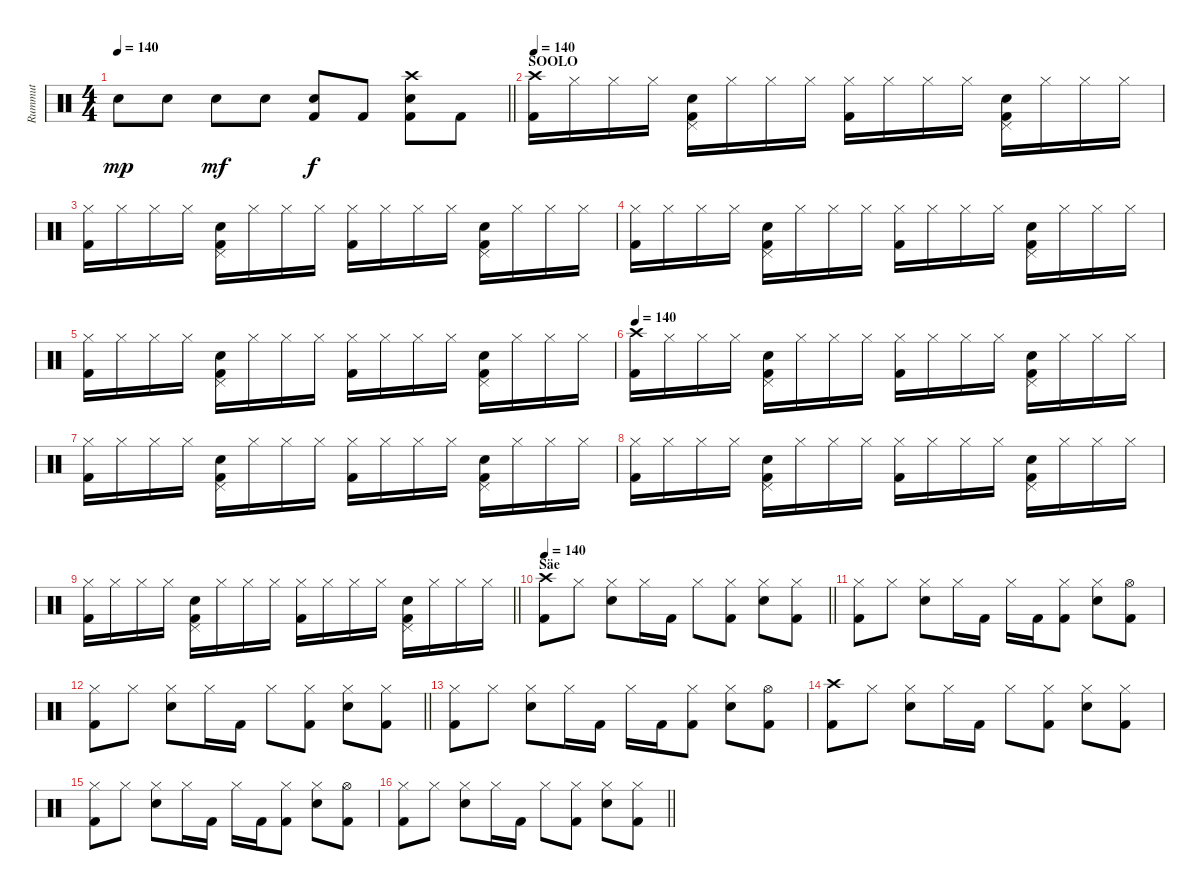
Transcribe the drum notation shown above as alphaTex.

\track ("Rummut" "Rummut") {instrument percussion}
\staff {score}
\articulation defaults
\ts (4 4)
\tempo 140
\clef neutral
\barLineRight lightlight
\ks c "Snare (hit) 2".8{dy mp} "Snare (hit) 2".8 "Snare (hit) 2".8{dy mf} "Snare (hit) 2".8
("Snare (hit) 2" "Kick (hit) 2").8{dy f} "Kick (hit) 2".8 ("Crash high (hit)" "Snare (hit) 2" "Kick (hit) 2").8 "Kick (hit) 2".8 |
\section ("" "SOOLO")
\tempo 140
("Crash high (hit)" "Kick (hit) 2").16 "Hi-Hat (closed)".16 "Hi-Hat (closed)".16 "Hi-Hat (closed)".16 ("Pedal Hi-Hat (hit)" "Snare (hit) 2" "Kick (hit) 2").16 "Hi-Hat (closed)".16 "Hi-Hat (closed)".16 "Hi-Hat (closed)".16 ("Hi-Hat (closed)" "Kick (hit) 2").16 "Hi-Hat (closed)".16 "Hi-Hat (closed)".16 "Hi-Hat (closed)".16 ("Pedal Hi-Hat (hit)" "Snare (hit) 2" "Kick (hit) 2").16 "Hi-Hat (closed)".16 "Hi-Hat (closed)".16 "Hi-Hat (closed)".16 |
("Hi-Hat (closed)" "Kick (hit) 2").16 "Hi-Hat (closed)".16 "Hi-Hat (closed)".16 "Hi-Hat (closed)".16 ("Pedal Hi-Hat (hit)" "Snare (hit) 2" "Kick (hit) 2").16 "Hi-Hat (closed)".16 "Hi-Hat (closed)".16 "Hi-Hat (closed)".16 ("Hi-Hat (closed)" "Kick (hit) 2").16 "Hi-Hat (closed)".16 "Hi-Hat (closed)".16 "Hi-Hat (closed)".16 ("Pedal Hi-Hat (hit)" "Snare (hit) 2" "Kick (hit) 2").16 "Hi-Hat (closed)".16 "Hi-Hat (closed)".16 "Hi-Hat (closed)".16 |
("Hi-Hat (closed)" "Kick (hit) 2").16 "Hi-Hat (closed)".16 "Hi-Hat (closed)".16 "Hi-Hat (closed)".16 ("Pedal Hi-Hat (hit)" "Snare (hit) 2" "Kick (hit) 2").16 "Hi-Hat (closed)".16 "Hi-Hat (closed)".16 "Hi-Hat (closed)".16 ("Hi-Hat (closed)" "Kick (hit) 2").16 "Hi-Hat (closed)".16 "Hi-Hat (closed)".16 "Hi-Hat (closed)".16 ("Pedal Hi-Hat (hit)" "Snare (hit) 2" "Kick (hit) 2").16 "Hi-Hat (closed)".16 "Hi-Hat (closed)".16 "Hi-Hat (closed)".16 |
("Hi-Hat (closed)" "Kick (hit) 2").16 "Hi-Hat (closed)".16 "Hi-Hat (closed)".16 "Hi-Hat (closed)".16 ("Pedal Hi-Hat (hit)" "Snare (hit) 2" "Kick (hit) 2").16 "Hi-Hat (closed)".16 "Hi-Hat (closed)".16 "Hi-Hat (closed)".16 ("Hi-Hat (closed)" "Kick (hit) 2").16 "Hi-Hat (closed)".16 "Hi-Hat (closed)".16 "Hi-Hat (closed)".16 ("Pedal Hi-Hat (hit)" "Snare (hit) 2" "Kick (hit) 2").16 "Hi-Hat (closed)".16 "Hi-Hat (closed)".16 "Hi-Hat (closed)".16 |
\tempo 140
("Crash high (hit)" "Kick (hit) 2").16 "Hi-Hat (closed)".16 "Hi-Hat (closed)".16 "Hi-Hat (closed)".16 ("Pedal Hi-Hat (hit)" "Snare (hit) 2" "Kick (hit) 2").16 "Hi-Hat (closed)".16 "Hi-Hat (closed)".16 "Hi-Hat (closed)".16 ("Hi-Hat (closed)" "Kick (hit) 2").16 "Hi-Hat (closed)".16 "Hi-Hat (closed)".16 "Hi-Hat (closed)".16 ("Pedal Hi-Hat (hit)" "Snare (hit) 2" "Kick (hit) 2").16 "Hi-Hat (closed)".16 "Hi-Hat (closed)".16 "Hi-Hat (closed)".16 |
("Hi-Hat (closed)" "Kick (hit) 2").16 "Hi-Hat (closed)".16 "Hi-Hat (closed)".16 "Hi-Hat (closed)".16 ("Pedal Hi-Hat (hit)" "Snare (hit) 2" "Kick (hit) 2").16 "Hi-Hat (closed)".16 "Hi-Hat (closed)".16 "Hi-Hat (closed)".16 ("Hi-Hat (closed)" "Kick (hit) 2").16 "Hi-Hat (closed)".16 "Hi-Hat (closed)".16 "Hi-Hat (closed)".16 ("Pedal Hi-Hat (hit)" "Snare (hit) 2" "Kick (hit) 2").16 "Hi-Hat (closed)".16 "Hi-Hat (closed)".16 "Hi-Hat (closed)".16 |
("Hi-Hat (closed)" "Kick (hit) 2").16 "Hi-Hat (closed)".16 "Hi-Hat (closed)".16 "Hi-Hat (closed)".16 ("Pedal Hi-Hat (hit)" "Snare (hit) 2" "Kick (hit) 2").16 "Hi-Hat (closed)".16 "Hi-Hat (closed)".16 "Hi-Hat (closed)".16 ("Hi-Hat (closed)" "Kick (hit) 2").16 "Hi-Hat (closed)".16 "Hi-Hat (closed)".16 "Hi-Hat (closed)".16 ("Pedal Hi-Hat (hit)" "Snare (hit) 2" "Kick (hit) 2").16 "Hi-Hat (closed)".16 "Hi-Hat (closed)".16 "Hi-Hat (closed)".16 |
\barLineRight lightlight
("Hi-Hat (closed)" "Kick (hit) 2").16 "Hi-Hat (closed)".16 "Hi-Hat (closed)".16 "Hi-Hat (closed)".16 ("Pedal Hi-Hat (hit)" "Snare (hit) 2" "Kick (hit) 2").16 "Hi-Hat (closed)".16 "Hi-Hat (closed)".16 "Hi-Hat (closed)".16 ("Hi-Hat (closed)" "Kick (hit) 2").16 "Hi-Hat (closed)".16 "Hi-Hat (closed)".16 "Hi-Hat (closed)".16 ("Pedal Hi-Hat (hit)" "Snare (hit) 2" "Kick (hit) 2").16 "Hi-Hat (closed)".16 "Hi-Hat (closed)".16 "Hi-Hat (closed)".16 |
\section ("" "Säe")
\tempo 140
\barLineRight lightlight
("Crash high (hit)" "Kick (hit) 2").8 "Hi-Hat (closed)".8 ("Hi-Hat (closed)" "Snare (hit) 2").8 "Hi-Hat (closed)".16 "Kick (hit) 2".16 "Hi-Hat (closed)".8 ("Hi-Hat (closed)" "Kick (hit) 2").8 ("Hi-Hat (closed)" "Snare (hit) 2").8 ("Hi-Hat (closed)" "Kick (hit) 2").8 |
("Hi-Hat (closed)" "Kick (hit) 2").8 "Hi-Hat (closed)".8 ("Hi-Hat (closed)" "Snare (hit) 2").8 "Hi-Hat (closed)".16 "Kick (hit) 2".16 "Hi-Hat (closed)".16 "Kick (hit) 2".16 ("Hi-Hat (closed)" "Kick (hit) 2").8 ("Hi-Hat (closed)" "Snare (hit) 2").8 ("Hi-Hat (open)" "Kick (hit) 2").8 |
\barLineRight lightlight
("Hi-Hat (closed)" "Kick (hit) 2").8 "Hi-Hat (closed)".8 ("Hi-Hat (closed)" "Snare (hit) 2").8 "Hi-Hat (closed)".16 "Kick (hit) 2".16 "Hi-Hat (closed)".8 ("Hi-Hat (closed)" "Kick (hit) 2").8 ("Hi-Hat (closed)" "Snare (hit) 2").8 ("Hi-Hat (closed)" "Kick (hit) 2").8 |
("Hi-Hat (closed)" "Kick (hit) 2").8 "Hi-Hat (closed)".8 ("Hi-Hat (closed)" "Snare (hit) 2").8 "Hi-Hat (closed)".16 "Kick (hit) 2".16 "Hi-Hat (closed)".16 "Kick (hit) 2".16 ("Hi-Hat (closed)" "Kick (hit) 2").8 ("Hi-Hat (closed)" "Snare (hit) 2").8 ("Hi-Hat (open)" "Kick (hit) 2").8 |
("Crash high (hit)" "Kick (hit) 2").8 "Hi-Hat (closed)".8 ("Hi-Hat (closed)" "Snare (hit) 2").8 "Hi-Hat (closed)".16 "Kick (hit) 2".16 "Hi-Hat (closed)".8 ("Hi-Hat (closed)" "Kick (hit) 2").8 ("Hi-Hat (closed)" "Snare (hit) 2").8 ("Hi-Hat (closed)" "Kick (hit) 2").8 |
("Hi-Hat (closed)" "Kick (hit) 2").8 "Hi-Hat (closed)".8 ("Hi-Hat (closed)" "Snare (hit) 2").8 "Hi-Hat (closed)".16 "Kick (hit) 2".16 "Hi-Hat (closed)".16 "Kick (hit) 2".16 ("Hi-Hat (closed)" "Kick (hit) 2").8 ("Hi-Hat (closed)" "Snare (hit) 2").8 ("Hi-Hat (open)" "Kick (hit) 2").8 |
\barLineRight lightlight
("Hi-Hat (closed)" "Kick (hit) 2").8 "Hi-Hat (closed)".8 ("Hi-Hat (closed)" "Snare (hit) 2").8 "Hi-Hat (closed)".16 "Kick (hit) 2".16 "Hi-Hat (closed)".8 ("Hi-Hat (closed)" "Kick (hit) 2").8 ("Hi-Hat (closed)" "Snare (hit) 2").8 ("Hi-Hat (closed)" "Kick (hit) 2").8
